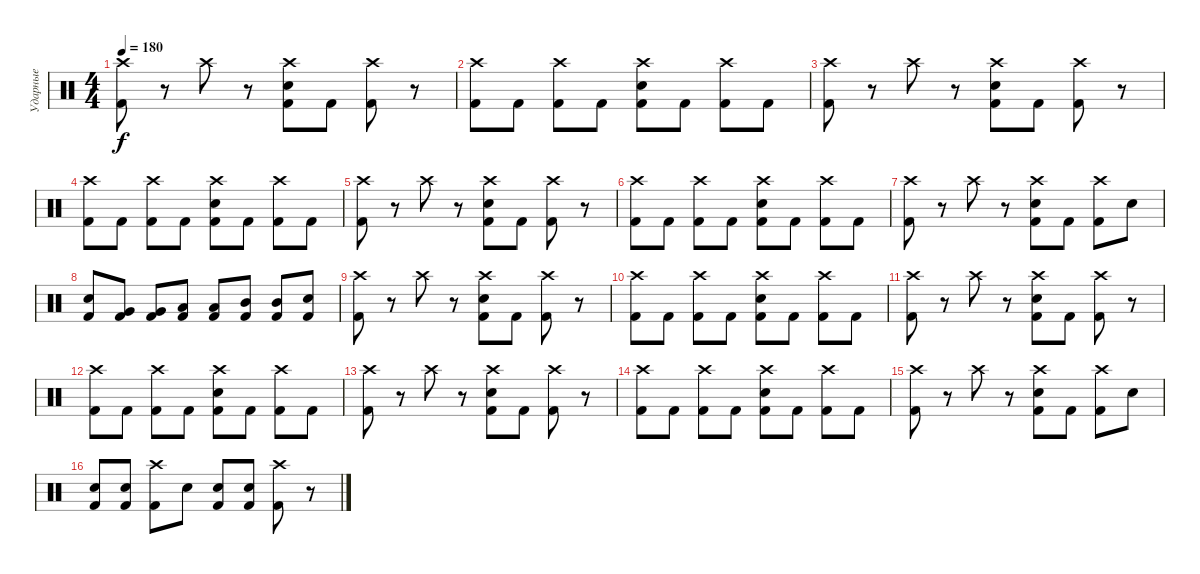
\track ("Ударные" "Ударные") {instrument percussion}
\staff {score}
\articulation defaults
\ts (4 4)
\tempo 180
\clef neutral
\ks c
("Crash high (hit)" "Kick (hit) 2").8{dy f} r.8 "Crash high (hit)".8 r.8 ("Crash high (hit)" "Electric Snare (hit)" "Kick (hit) 2").8 "Kick (hit) 2".8 ("Crash high (hit)" "Kick (hit) 2").8 r.8 |
("Crash high (hit)" "Kick (hit) 2").8 "Kick (hit) 2".8 ("Crash high (hit)" "Kick (hit) 2").8 "Kick (hit) 2".8 ("Crash high (hit)" "Electric Snare (hit)" "Kick (hit) 2").8 "Kick (hit) 2".8 ("Crash high (hit)" "Kick (hit) 2").8 "Kick (hit) 2".8 |
("Crash high (hit)" "Kick (hit) 2").8 r.8 "Crash high (hit)".8 r.8 ("Crash high (hit)" "Electric Snare (hit)" "Kick (hit) 2").8 "Kick (hit) 2".8 ("Crash high (hit)" "Kick (hit) 2").8 r.8 |
("Crash high (hit)" "Kick (hit) 2").8 "Kick (hit) 2".8 ("Crash high (hit)" "Kick (hit) 2").8 "Kick (hit) 2".8 ("Crash high (hit)" "Electric Snare (hit)" "Kick (hit) 2").8 "Kick (hit) 2".8 ("Crash high (hit)" "Kick (hit) 2").8 "Kick (hit) 2".8 |
("Crash high (hit)" "Kick (hit) 2").8 r.8 "Crash high (hit)".8 r.8 ("Crash high (hit)" "Electric Snare (hit)" "Kick (hit) 2").8 "Kick (hit) 2".8 ("Crash high (hit)" "Kick (hit) 2").8 r.8 |
("Crash high (hit)" "Kick (hit) 2").8 "Kick (hit) 2".8 ("Crash high (hit)" "Kick (hit) 2").8 "Kick (hit) 2".8 ("Crash high (hit)" "Electric Snare (hit)" "Kick (hit) 2").8 "Kick (hit) 2".8 ("Crash high (hit)" "Kick (hit) 2").8 "Kick (hit) 2".8 |
("Crash high (hit)" "Kick (hit) 2").8 r.8 "Crash high (hit)".8 r.8 ("Crash high (hit)" "Electric Snare (hit)" "Kick (hit) 2").8 "Kick (hit) 2".8 ("Crash high (hit)" "Kick (hit) 2").8 "Electric Snare (hit)".8 |
("Electric Snare (hit)" "Kick (hit) 2").8 ("Very Low Tom (hit)" "Kick (hit) 2").8 ("Very Low Tom (hit)" "Kick (hit) 2").8 ("Low Tom (hit)" "Kick (hit) 2").8 ("Low Tom (hit)" "Kick (hit) 2").8 ("Mid Tom (hit)" "Kick (hit) 2").8 ("Mid Tom (hit)" "Kick (hit) 2").8 ("Electric Snare (hit)" "Kick (hit) 2").8 |
("Crash high (hit)" "Kick (hit) 2").8 r.8 "Crash high (hit)".8 r.8 ("Crash high (hit)" "Electric Snare (hit)" "Kick (hit) 2").8 "Kick (hit) 2".8 ("Crash high (hit)" "Kick (hit) 2").8 r.8 |
("Crash high (hit)" "Kick (hit) 2").8 "Kick (hit) 2".8 ("Crash high (hit)" "Kick (hit) 2").8 "Kick (hit) 2".8 ("Crash high (hit)" "Electric Snare (hit)" "Kick (hit) 2").8 "Kick (hit) 2".8 ("Crash high (hit)" "Kick (hit) 2").8 "Kick (hit) 2".8 |
("Crash high (hit)" "Kick (hit) 2").8 r.8 "Crash high (hit)".8 r.8 ("Crash high (hit)" "Electric Snare (hit)" "Kick (hit) 2").8 "Kick (hit) 2".8 ("Crash high (hit)" "Kick (hit) 2").8 r.8 |
("Crash high (hit)" "Kick (hit) 2").8 "Kick (hit) 2".8 ("Crash high (hit)" "Kick (hit) 2").8 "Kick (hit) 2".8 ("Crash high (hit)" "Electric Snare (hit)" "Kick (hit) 2").8 "Kick (hit) 2".8 ("Crash high (hit)" "Kick (hit) 2").8 "Kick (hit) 2".8 |
("Crash high (hit)" "Kick (hit) 2").8 r.8 "Crash high (hit)".8 r.8 ("Crash high (hit)" "Electric Snare (hit)" "Kick (hit) 2").8 "Kick (hit) 2".8 ("Crash high (hit)" "Kick (hit) 2").8 r.8 |
("Crash high (hit)" "Kick (hit) 2").8 "Kick (hit) 2".8 ("Crash high (hit)" "Kick (hit) 2").8 "Kick (hit) 2".8 ("Crash high (hit)" "Electric Snare (hit)" "Kick (hit) 2").8 "Kick (hit) 2".8 ("Crash high (hit)" "Kick (hit) 2").8 "Kick (hit) 2".8 |
("Crash high (hit)" "Kick (hit) 2").8 r.8 "Crash high (hit)".8 r.8 ("Crash high (hit)" "Electric Snare (hit)" "Kick (hit) 2").8 "Kick (hit) 2".8 ("Crash high (hit)" "Kick (hit) 2").8 "Electric Snare (hit)".8 |
("Electric Snare (hit)" "Kick (hit) 2").8 ("Electric Snare (hit)" "Kick (hit) 2").8 ("Crash high (hit)" "Kick (hit) 2").8 "Electric Snare (hit)".8 ("Electric Snare (hit)" "Kick (hit) 2").8 ("Electric Snare (hit)" "Kick (hit) 2").8 ("Crash high (hit)" "Kick (hit) 2").8 r.8
